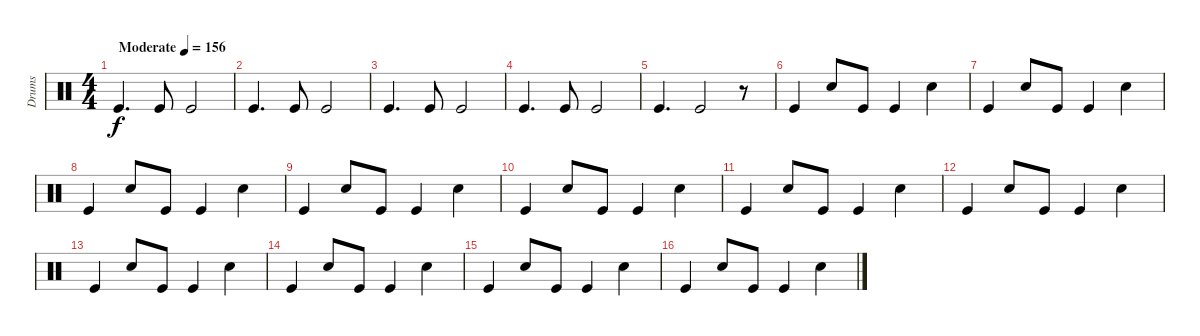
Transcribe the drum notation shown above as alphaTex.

\track ("Drums" "Drums") {instrument percussion}
\staff {score}
\articulation defaults
\ts (4 4)
\tempo (156 "Moderate")
\clef neutral
\ks c "Kick (hit)".4{d dy f} "Kick (hit)".8 "Kick (hit)".2
|
"Kick (hit)".4{d} "Kick (hit)".8 "Kick (hit)".2 |
"Kick (hit)".4{d} "Kick (hit)".8 "Kick (hit)".2 |
"Kick (hit)".4{d} "Kick (hit)".8 "Kick (hit)".2 |
"Kick (hit)".4{d} "Kick (hit)".2 r.8 |
"Kick (hit)".4 "Snare (hit) 2".8 "Kick (hit)".8 "Kick (hit)".4 "Snare (hit) 2".4 |
"Kick (hit)".4 "Snare (hit) 2".8 "Kick (hit)".8 "Kick (hit)".4 "Snare (hit) 2".4 |
"Kick (hit)".4 "Snare (hit) 2".8 "Kick (hit)".8 "Kick (hit)".4 "Snare (hit) 2".4 |
"Kick (hit)".4 "Snare (hit) 2".8 "Kick (hit)".8 "Kick (hit)".4 "Snare (hit) 2".4 |
"Kick (hit)".4 "Snare (hit) 2".8 "Kick (hit)".8 "Kick (hit)".4 "Snare (hit) 2".4 |
"Kick (hit)".4 "Snare (hit) 2".8 "Kick (hit)".8 "Kick (hit)".4 "Snare (hit) 2".4 |
"Kick (hit)".4 "Snare (hit) 2".8 "Kick (hit)".8 "Kick (hit)".4 "Snare (hit) 2".4 |
"Kick (hit)".4 "Snare (hit) 2".8 "Kick (hit)".8 "Kick (hit)".4 "Snare (hit) 2".4 |
"Kick (hit)".4 "Snare (hit) 2".8 "Kick (hit)".8 "Kick (hit)".4 "Snare (hit) 2".4 |
"Kick (hit)".4 "Snare (hit) 2".8 "Kick (hit)".8 "Kick (hit)".4 "Snare (hit) 2".4 |
"Kick (hit)".4 "Snare (hit) 2".8 "Kick (hit)".8 "Kick (hit)".4 "Snare (hit) 2".4
